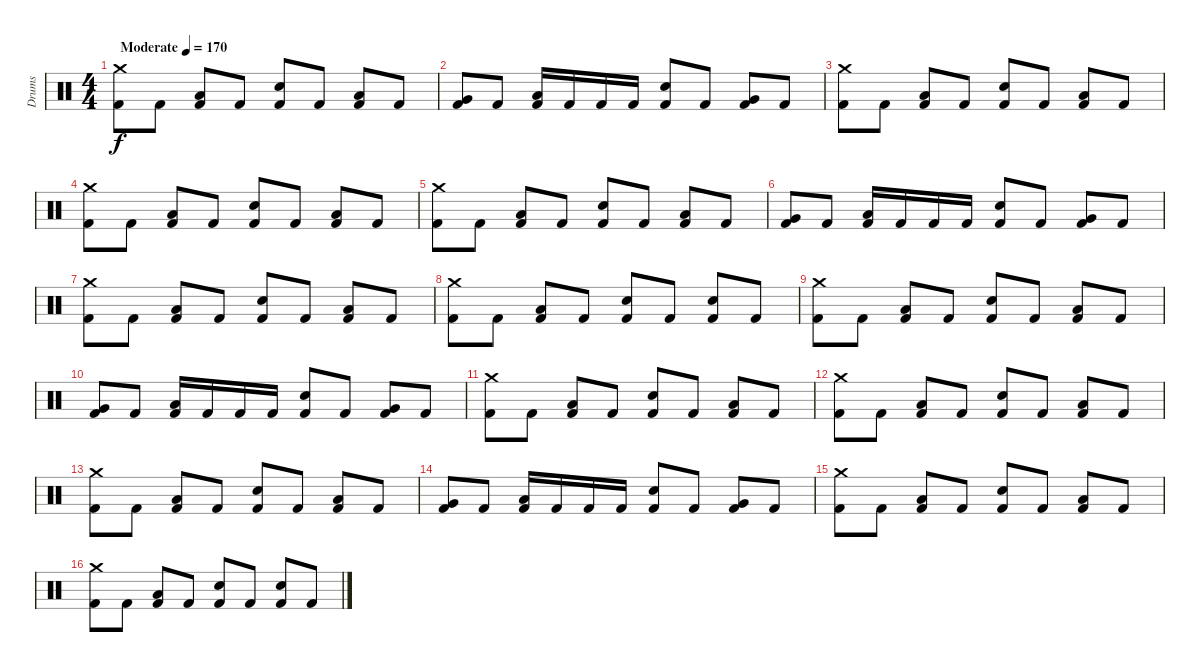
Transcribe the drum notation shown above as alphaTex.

\track ("Drums" "Drums") {instrument percussion bank 255}
\staff {score}
\articulation defaults
\ts (4 4)
\tempo (170 "Moderate")
\clef neutral
\ks c
("Crash medium (hit)" "Kick (hit) 2").8{dy f} "Kick (hit) 2".8 ("Low Floor Tom (hit)" "Kick (hit) 2").8 "Kick (hit) 2".8 ("Electric Snare (hit)" "Kick (hit) 2").8 "Kick (hit) 2".8 ("Low Tom (hit)" "Kick (hit) 2").8 "Kick (hit) 2".8 |
("Very Low Tom (hit)" "Kick (hit) 2").8 "Kick (hit) 2".8 ("Low Floor Tom (hit)" "Kick (hit) 2").16 "Kick (hit) 2".16 "Kick (hit) 2".16 "Kick (hit) 2".16 ("Electric Snare (hit)" "Kick (hit) 2").8 "Kick (hit) 2".8 ("Very Low Tom (hit)" "Kick (hit) 2").8 "Kick (hit) 2".8 |
("Crash medium (hit)" "Kick (hit) 2").8 "Kick (hit) 2".8 ("Low Floor Tom (hit)" "Kick (hit) 2").8 "Kick (hit) 2".8 ("Electric Snare (hit)" "Kick (hit) 2").8 "Kick (hit) 2".8 ("Low Tom (hit)" "Kick (hit) 2").8 "Kick (hit) 2".8 |
("Crash medium (hit)" "Kick (hit) 2").8 "Kick (hit) 2".8 ("Low Floor Tom (hit)" "Kick (hit) 2").8 "Kick (hit) 2".8 ("Electric Snare (hit)" "Kick (hit) 2").8 "Kick (hit) 2".8 ("Low Tom (hit)" "Kick (hit) 2").8 "Kick (hit) 2".8 |
("Crash medium (hit)" "Kick (hit) 2").8 "Kick (hit) 2".8 ("Low Floor Tom (hit)" "Kick (hit) 2").8 "Kick (hit) 2".8 ("Electric Snare (hit)" "Kick (hit) 2").8 "Kick (hit) 2".8 ("Low Tom (hit)" "Kick (hit) 2").8 "Kick (hit) 2".8 |
("Very Low Tom (hit)" "Kick (hit) 2").8 "Kick (hit) 2".8 ("Low Floor Tom (hit)" "Kick (hit) 2").16 "Kick (hit) 2".16 "Kick (hit) 2".16 "Kick (hit) 2".16 ("Electric Snare (hit)" "Kick (hit) 2").8 "Kick (hit) 2".8 ("Very Low Tom (hit)" "Kick (hit) 2").8 "Kick (hit) 2".8 |
("Crash medium (hit)" "Kick (hit) 2").8 "Kick (hit) 2".8 ("Low Floor Tom (hit)" "Kick (hit) 2").8 "Kick (hit) 2".8 ("Electric Snare (hit)" "Kick (hit) 2").8 "Kick (hit) 2".8 ("Low Tom (hit)" "Kick (hit) 2").8 "Kick (hit) 2".8 |
("Crash medium (hit)" "Kick (hit) 2").8 "Kick (hit) 2".8 ("Low Floor Tom (hit)" "Kick (hit) 2").8 "Kick (hit) 2".8 ("Electric Snare (hit)" "Kick (hit) 2").8 "Kick (hit) 2".8 ("Electric Snare (hit)" "Kick (hit) 2").8 "Kick (hit) 2".8 |
("Crash medium (hit)" "Kick (hit) 2").8 "Kick (hit) 2".8 ("Low Floor Tom (hit)" "Kick (hit) 2").8 "Kick (hit) 2".8 ("Electric Snare (hit)" "Kick (hit) 2").8 "Kick (hit) 2".8 ("Low Tom (hit)" "Kick (hit) 2").8 "Kick (hit) 2".8 |
("Very Low Tom (hit)" "Kick (hit) 2").8 "Kick (hit) 2".8 ("Low Floor Tom (hit)" "Kick (hit) 2").16 "Kick (hit) 2".16 "Kick (hit) 2".16 "Kick (hit) 2".16 ("Electric Snare (hit)" "Kick (hit) 2").8 "Kick (hit) 2".8 ("Very Low Tom (hit)" "Kick (hit) 2").8 "Kick (hit) 2".8 |
("Crash medium (hit)" "Kick (hit) 2").8 "Kick (hit) 2".8 ("Low Floor Tom (hit)" "Kick (hit) 2").8 "Kick (hit) 2".8 ("Electric Snare (hit)" "Kick (hit) 2").8 "Kick (hit) 2".8 ("Low Tom (hit)" "Kick (hit) 2").8 "Kick (hit) 2".8 |
("Crash medium (hit)" "Kick (hit) 2").8 "Kick (hit) 2".8 ("Low Floor Tom (hit)" "Kick (hit) 2").8 "Kick (hit) 2".8 ("Electric Snare (hit)" "Kick (hit) 2").8 "Kick (hit) 2".8 ("Low Tom (hit)" "Kick (hit) 2").8 "Kick (hit) 2".8 |
("Crash medium (hit)" "Kick (hit) 2").8 "Kick (hit) 2".8 ("Low Floor Tom (hit)" "Kick (hit) 2").8 "Kick (hit) 2".8 ("Electric Snare (hit)" "Kick (hit) 2").8 "Kick (hit) 2".8 ("Low Tom (hit)" "Kick (hit) 2").8 "Kick (hit) 2".8 |
("Very Low Tom (hit)" "Kick (hit) 2").8 "Kick (hit) 2".8 ("Low Floor Tom (hit)" "Kick (hit) 2").16 "Kick (hit) 2".16 "Kick (hit) 2".16 "Kick (hit) 2".16 ("Electric Snare (hit)" "Kick (hit) 2").8 "Kick (hit) 2".8 ("Very Low Tom (hit)" "Kick (hit) 2").8 "Kick (hit) 2".8 |
("Crash medium (hit)" "Kick (hit) 2").8 "Kick (hit) 2".8 ("Low Floor Tom (hit)" "Kick (hit) 2").8 "Kick (hit) 2".8 ("Electric Snare (hit)" "Kick (hit) 2").8 "Kick (hit) 2".8 ("Low Tom (hit)" "Kick (hit) 2").8 "Kick (hit) 2".8 |
("Crash medium (hit)" "Kick (hit) 2").8 "Kick (hit) 2".8 ("Low Floor Tom (hit)" "Kick (hit) 2").8 "Kick (hit) 2".8 ("Electric Snare (hit)" "Kick (hit) 2").8 "Kick (hit) 2".8 ("Electric Snare (hit)" "Kick (hit) 2").8 "Kick (hit) 2".8
